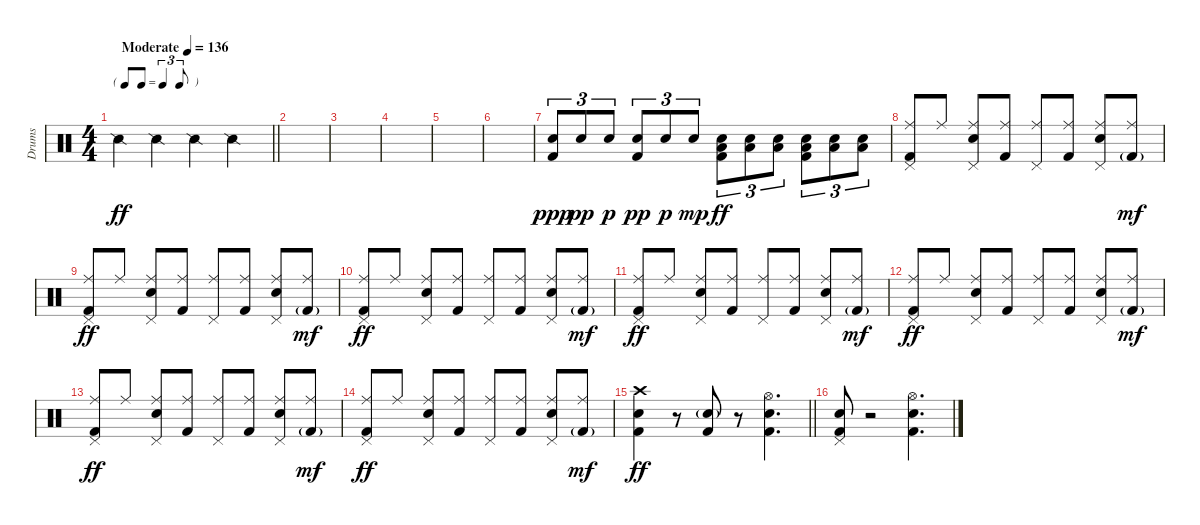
\track ("Drums" "Drums") {instrument percussion}
\staff {score}
\articulation defaults
\ts (4 4)
\tf triplet8th
\tempo (136 "Moderate")
\clef neutral
\barLineRight lightlight
\ks c "Snare (side stick) 2".4{dy ff} "Snare (side stick) 2".4 "Snare (side stick) 2".4 "Snare (side stick) 2".4
|
|
|
|
|
|
("Snare (hit) 2" "Kick (hit) 2").8{tu (3 2) dy ppp} "Snare (hit) 2".8{tu (3 2) dy pp} "Snare (hit) 2".8{tu (3 2) dy p} ("Snare (hit) 2" "Kick (hit) 2").8{tu (3 2) dy pp} "Snare (hit) 2".8{tu (3 2) dy p} "Snare (hit) 2".8{tu (3 2) dy mp} ("Snare (hit) 2" "Low Floor Tom (hit)" "Kick (hit) 2").8{tu (3 2) dy ff} ("Snare (hit) 2" "Low Floor Tom (hit)").8{tu (3 2)} ("Snare (hit) 2" "Low Floor Tom (hit)").8{tu (3 2)} ("Snare (hit) 2" "Low Floor Tom (hit)" "Kick (hit) 2").8{tu (3 2)} ("Snare (hit) 2" "Low Floor Tom (hit)").8{tu (3 2)} ("Snare (hit) 2" "Low Floor Tom (hit)").8{tu (3 2)} |
("Ride (middle)" "Pedal Hi-Hat (hit)" "Kick (hit) 2").8 "Ride (middle)".8 ("Ride (middle)" "Pedal Hi-Hat (hit)" "Snare (hit) 2").8 ("Ride (middle)" "Kick (hit) 2").8 ("Ride (middle)" "Pedal Hi-Hat (hit)").8 ("Ride (middle)" "Kick (hit) 2").8 ("Ride (middle)" "Pedal Hi-Hat (hit)" "Snare (hit) 2").8 ("Ride (middle)" "Kick (hit) 2"{g}).8{dy mf} |
("Ride (middle)" "Pedal Hi-Hat (hit)" "Kick (hit) 2").8{dy ff} "Ride (middle)".8 ("Ride (middle)" "Pedal Hi-Hat (hit)" "Snare (hit) 2").8 ("Ride (middle)" "Kick (hit) 2").8 ("Ride (middle)" "Pedal Hi-Hat (hit)").8 ("Ride (middle)" "Kick (hit) 2").8 ("Ride (middle)" "Pedal Hi-Hat (hit)" "Snare (hit) 2").8 ("Ride (middle)" "Kick (hit) 2"{g}).8{dy mf} |
("Ride (middle)" "Pedal Hi-Hat (hit)" "Kick (hit) 2").8{dy ff} "Ride (middle)".8 ("Ride (middle)" "Pedal Hi-Hat (hit)" "Snare (hit) 2").8 ("Ride (middle)" "Kick (hit) 2").8 ("Ride (middle)" "Pedal Hi-Hat (hit)").8 ("Ride (middle)" "Kick (hit) 2").8 ("Ride (middle)" "Pedal Hi-Hat (hit)" "Snare (hit) 2").8 ("Ride (middle)" "Kick (hit) 2"{g}).8{dy mf} |
("Ride (middle)" "Pedal Hi-Hat (hit)" "Kick (hit) 2").8{dy ff} "Ride (middle)".8 ("Ride (middle)" "Pedal Hi-Hat (hit)" "Snare (hit) 2").8 ("Ride (middle)" "Kick (hit) 2").8 ("Ride (middle)" "Pedal Hi-Hat (hit)").8 ("Ride (middle)" "Kick (hit) 2").8 ("Ride (middle)" "Pedal Hi-Hat (hit)" "Snare (hit) 2").8 ("Ride (middle)" "Kick (hit) 2"{g}).8{dy mf} |
("Ride (middle)" "Pedal Hi-Hat (hit)" "Kick (hit) 2").8{dy ff} "Ride (middle)".8 ("Ride (middle)" "Pedal Hi-Hat (hit)" "Snare (hit) 2").8 ("Ride (middle)" "Kick (hit) 2").8 ("Ride (middle)" "Pedal Hi-Hat (hit)").8 ("Ride (middle)" "Kick (hit) 2").8 ("Ride (middle)" "Pedal Hi-Hat (hit)" "Snare (hit) 2").8 ("Ride (middle)" "Kick (hit) 2"{g}).8{dy mf} |
("Ride (middle)" "Pedal Hi-Hat (hit)" "Kick (hit) 2").8{dy ff} "Ride (middle)".8 ("Ride (middle)" "Pedal Hi-Hat (hit)" "Snare (hit) 2").8 ("Ride (middle)" "Kick (hit) 2").8 ("Ride (middle)" "Pedal Hi-Hat (hit)").8 ("Ride (middle)" "Kick (hit) 2").8 ("Ride (middle)" "Pedal Hi-Hat (hit)" "Snare (hit) 2").8 ("Ride (middle)" "Kick (hit) 2"{g}).8{dy mf} |
("Ride (middle)" "Pedal Hi-Hat (hit)" "Kick (hit) 2").8{dy ff} "Ride (middle)".8 ("Ride (middle)" "Pedal Hi-Hat (hit)" "Snare (hit) 2").8 ("Ride (middle)" "Kick (hit) 2").8 ("Ride (middle)" "Pedal Hi-Hat (hit)").8 ("Ride (middle)" "Kick (hit) 2").8 ("Ride (middle)" "Pedal Hi-Hat (hit)" "Snare (hit) 2").8 ("Ride (middle)" "Kick (hit) 2"{g}).8{dy mf} |
\barLineRight lightlight
("Crash high (hit)" "Snare (hit) 2" "Kick (hit) 2").4{dy ff} r.8 ("Snare (hit) 2"{g} "Kick (hit) 2").8 r.8 ("Hi-Hat (open)" "Snare (hit) 2" "Kick (hit) 2").4{d} |
("Pedal Hi-Hat (hit)" "Snare (hit) 2" "Kick (hit) 2").8 r.2 ("Hi-Hat (open)" "Snare (hit) 2" "Kick (hit) 2").4{d}
